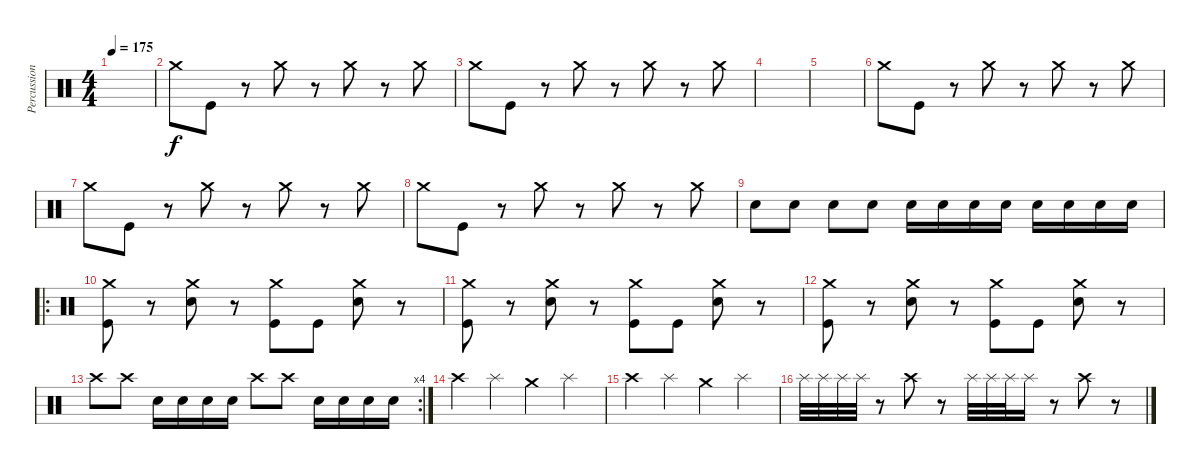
\track ("Percussion" "Percussion") {instrument percussion}
\staff {score}
\articulation defaults
\ts (4 4)
\tempo 175
\clef neutral
\ks c
|
"Crash medium (hit)".8 "Kick (hit)".8 r.8 "Crash medium (hit)".8 r.8 "Crash medium (hit)".8 r.8 "Crash medium (hit)".8 |
"Crash medium (hit)".8 "Kick (hit)".8 r.8 "Crash medium (hit)".8 r.8 "Crash medium (hit)".8 r.8 "Crash medium (hit)".8 |
|
|
"Crash medium (hit)".8 "Kick (hit)".8 r.8 "Crash medium (hit)".8 r.8 "Crash medium (hit)".8 r.8 "Crash medium (hit)".8 |
"Crash medium (hit)".8 "Kick (hit)".8 r.8 "Crash medium (hit)".8 r.8 "Crash medium (hit)".8 r.8 "Crash medium (hit)".8 |
"Crash medium (hit)".8 "Kick (hit)".8 r.8 "Crash medium (hit)".8 r.8 "Crash medium (hit)".8 r.8 "Crash medium (hit)".8 |
"Electric Snare (hit)".8 "Electric Snare (hit)".8 "Electric Snare (hit)".8 "Electric Snare (hit)".8 "Electric Snare (hit)".16 "Electric Snare (hit)".16 "Electric Snare (hit)".16 "Electric Snare (hit)".16 "Electric Snare (hit)".16 "Electric Snare (hit)".16 "Electric Snare (hit)".16 "Electric Snare (hit)".16 |
\ro
("Crash medium (hit)" "Kick (hit)").8 r.8 ("Crash medium (hit)" "Electric Snare (hit)").8 r.8 ("Crash medium (hit)" "Kick (hit)").8 "Kick (hit)".8 ("Crash medium (hit)" "Electric Snare (hit)").8 r.8 |
("Crash medium (hit)" "Kick (hit)").8 r.8 ("Crash medium (hit)" "Electric Snare (hit)").8 r.8 ("Crash medium (hit)" "Kick (hit)").8 "Kick (hit)".8 ("Crash medium (hit)" "Electric Snare (hit)").8 r.8 |
("Crash medium (hit)" "Kick (hit)").8 r.8 ("Crash medium (hit)" "Electric Snare (hit)").8 r.8 ("Crash medium (hit)" "Kick (hit)").8 "Kick (hit)".8 ("Crash medium (hit)" "Electric Snare (hit)").8 r.8 |
\rc 4 "Crash high (hit)".8 "Crash high (hit)".8 "Electric Snare (hit)".16 "Electric Snare (hit)".16 "Electric Snare (hit)".16 "Electric Snare (hit)".16 "Crash high (hit)".8 "Crash high (hit)".8 "Electric Snare (hit)".16 "Electric Snare (hit)".16 "Electric Snare (hit)".16 "Electric Snare (hit)".16
|
"Crash high (hit)".4 "Splash (hit)".4 "Crash medium (hit)".4 "Splash (hit)".4 |
"Crash high (hit)".4 "Splash (hit)".4 "Crash medium (hit)".4 "Splash (hit)".4 |
"Splash (hit)".32 "Splash (hit)".32 "Splash (hit)".32 "Splash (hit)".32 r.8 "Crash high (hit)".8 r.8 "Splash (hit)".32 "Splash (hit)".32 "Splash (hit)".32 "Splash (hit)".16 r.8 "Crash high (hit)".8 r.8
